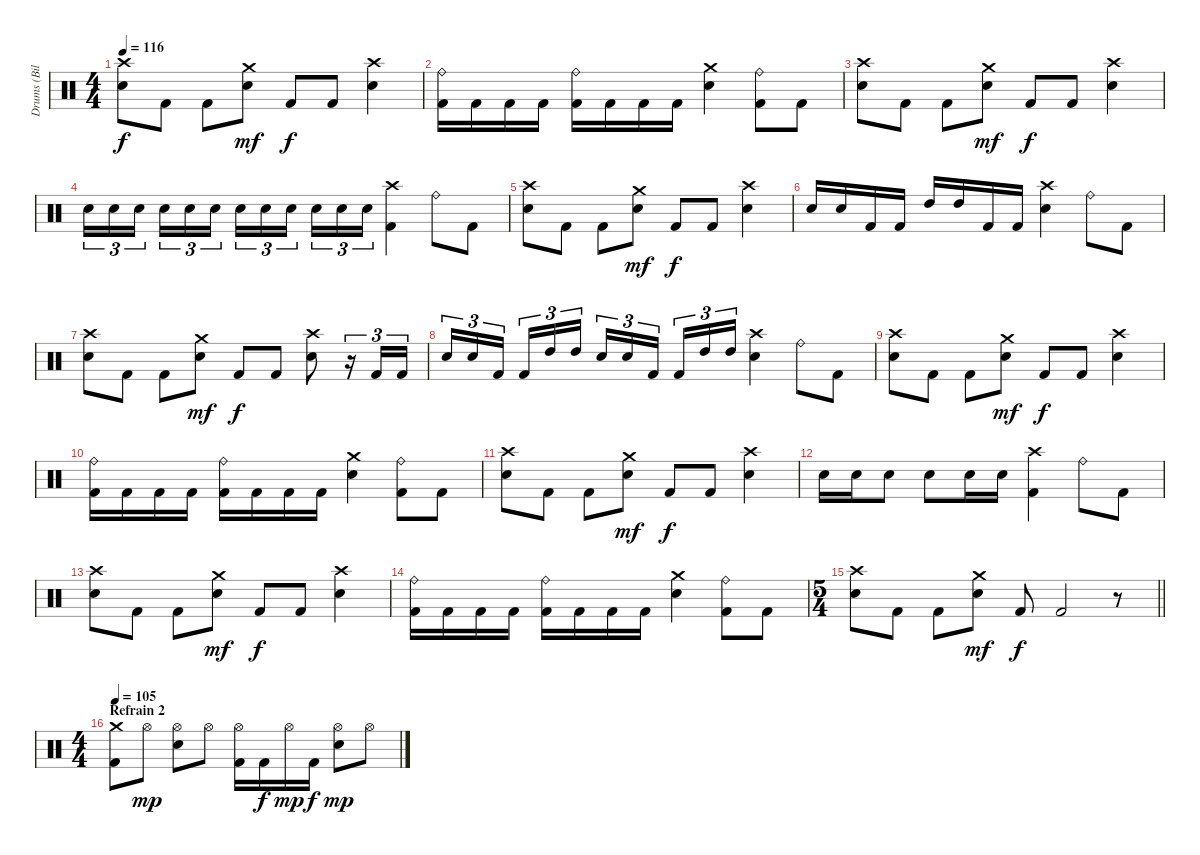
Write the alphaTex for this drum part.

\track ("Drums (Bill Andrews)" "Drums (Bil") {instrument percussion}
\staff
\articulation defaults
\ts (4 4)
\tempo 116
\clef neutral
\ks c
("Crash high (hit)" "Electric Snare (hit)").8{dy f} "Kick (hit) 2".8 "Kick (hit) 2".8 ("Crash medium (hit)" "Electric Snare (hit)").8{dy mf} "Kick (hit) 2".8{dy f} "Kick (hit) 2".8 ("Crash high (hit)" "Electric Snare (hit)").4 |
("Ride (bell)" "Kick (hit) 2").16 "Kick (hit) 2".16 "Kick (hit) 2".16 "Kick (hit) 2".16 ("Ride (bell)" "Kick (hit) 2").16 "Kick (hit) 2".16 "Kick (hit) 2".16 "Kick (hit) 2".16 ("Crash medium (hit)" "Electric Snare (hit)").4 ("Ride (bell)" "Kick (hit) 2").8 "Kick (hit) 2".8 |
("Crash high (hit)" "Electric Snare (hit)").8 "Kick (hit) 2".8 "Kick (hit) 2".8 ("Crash medium (hit)" "Electric Snare (hit)").8{dy mf} "Kick (hit) 2".8{dy f} "Kick (hit) 2".8 ("Crash high (hit)" "Electric Snare (hit)").4 |
"Electric Snare (hit)".16{tu (3 2)} "Electric Snare (hit)".16{tu (3 2)} "Electric Snare (hit)".16{tu (3 2) beam splitsecondary} "Electric Snare (hit)".16{tu (3 2)} "Electric Snare (hit)".16{tu (3 2)} "Electric Snare (hit)".16{tu (3 2)} "Electric Snare (hit)".16{tu (3 2)} "Electric Snare (hit)".16{tu (3 2)} "Electric Snare (hit)".16{tu (3 2) beam splitsecondary} "Electric Snare (hit)".16{tu (3 2)} "Electric Snare (hit)".16{tu (3 2)} "Electric Snare (hit)".16{tu (3 2)} ("Crash high (hit)" "Kick (hit) 2").4 "Ride (bell)".8 "Kick (hit) 2".8 |
("Crash high (hit)" "Electric Snare (hit)").8 "Kick (hit) 2".8 "Kick (hit) 2".8 ("Crash medium (hit)" "Electric Snare (hit)").8{dy mf} "Kick (hit) 2".8{dy f} "Kick (hit) 2".8 ("Crash high (hit)" "Electric Snare (hit)").4 |
"Electric Snare (hit)".16 "Electric Snare (hit)".16 "Kick (hit) 2".16 "Kick (hit) 2".16 "High Tom (hit)".16 "High Tom (hit)".16 "Kick (hit) 2".16 "Kick (hit) 2".16 ("Crash high (hit)" "Electric Snare (hit)").4 "Ride (bell)".8 "Kick (hit) 2".8 |
("Crash high (hit)" "Electric Snare (hit)").8 "Kick (hit) 2".8 "Kick (hit) 2".8 ("Crash medium (hit)" "Electric Snare (hit)").8{dy mf} "Kick (hit) 2".8{dy f} "Kick (hit) 2".8 ("Crash high (hit)" "Electric Snare (hit)").8 r.16{tu (3 2)} "Kick (hit) 2".16{tu (3 2)} "Kick (hit) 2".16{tu (3 2)} |
"Electric Snare (hit)".16{tu (3 2)} "Electric Snare (hit)".16{tu (3 2)} "Kick (hit) 2".16{tu (3 2) beam splitsecondary} "Kick (hit) 2".16{tu (3 2)} "High Tom (hit)".16{tu (3 2)} "High Tom (hit)".16{tu (3 2)} "Electric Snare (hit)".16{tu (3 2)} "Electric Snare (hit)".16{tu (3 2)} "Kick (hit) 2".16{tu (3 2) beam splitsecondary} "Kick (hit) 2".16{tu (3 2)} "High Tom (hit)".16{tu (3 2)} "High Tom (hit)".16{tu (3 2)} ("Crash high (hit)" "Electric Snare (hit)").4 "Ride (bell)".8 "Kick (hit) 2".8 |
("Crash high (hit)" "Electric Snare (hit)").8 "Kick (hit) 2".8 "Kick (hit) 2".8 ("Crash medium (hit)" "Electric Snare (hit)").8{dy mf} "Kick (hit) 2".8{dy f} "Kick (hit) 2".8 ("Crash high (hit)" "Electric Snare (hit)").4 |
("Ride (bell)" "Kick (hit) 2").16 "Kick (hit) 2".16 "Kick (hit) 2".16 "Kick (hit) 2".16 ("Ride (bell)" "Kick (hit) 2").16 "Kick (hit) 2".16 "Kick (hit) 2".16 "Kick (hit) 2".16 ("Crash medium (hit)" "Electric Snare (hit)").4 ("Ride (bell)" "Kick (hit) 2").8 "Kick (hit) 2".8 |
("Crash high (hit)" "Electric Snare (hit)").8 "Kick (hit) 2".8 "Kick (hit) 2".8 ("Crash medium (hit)" "Electric Snare (hit)").8{dy mf} "Kick (hit) 2".8{dy f} "Kick (hit) 2".8 ("Crash high (hit)" "Electric Snare (hit)").4 |
"Electric Snare (hit)".16 "Electric Snare (hit)".16 "Electric Snare (hit)".8 "Electric Snare (hit)".8 "Electric Snare (hit)".16 "Electric Snare (hit)".16 ("Crash high (hit)" "Kick (hit) 2").4 "Ride (bell)".8 "Kick (hit) 2".8 |
("Crash high (hit)" "Electric Snare (hit)").8 "Kick (hit) 2".8 "Kick (hit) 2".8 ("Crash medium (hit)" "Electric Snare (hit)").8{dy mf} "Kick (hit) 2".8{dy f} "Kick (hit) 2".8 ("Crash high (hit)" "Electric Snare (hit)").4 |
("Ride (bell)" "Kick (hit) 2").16 "Kick (hit) 2".16 "Kick (hit) 2".16 "Kick (hit) 2".16 ("Ride (bell)" "Kick (hit) 2").16 "Kick (hit) 2".16 "Kick (hit) 2".16 "Kick (hit) 2".16 ("Crash medium (hit)" "Electric Snare (hit)").4 ("Ride (bell)" "Kick (hit) 2").8 "Kick (hit) 2".8 |
\ts (5 4)
\barLineRight lightlight
("Crash high (hit)" "Electric Snare (hit)").8 "Kick (hit) 2".8 "Kick (hit) 2".8 ("Crash medium (hit)" "Electric Snare (hit)").8{dy mf} "Kick (hit) 2".8{dy f} "Kick (hit) 2".2 r.8 |
\ts (4 4)
\section ("" "Refrain 2")
\tempo 105
("Crash medium (hit)" "Kick (hit) 2").8 "Hi-Hat (open)".8{dy mp} ("Hi-Hat (open)" "Electric Snare (hit)").8 "Hi-Hat (open)".8 ("Hi-Hat (open)" "Kick (hit) 2").16 "Kick (hit) 2".16{dy f} "Hi-Hat (open)".16{dy mp} "Kick (hit) 2".16{dy f} ("Hi-Hat (open)" "Electric Snare (hit)").8{dy mp} "Hi-Hat (open)".8
